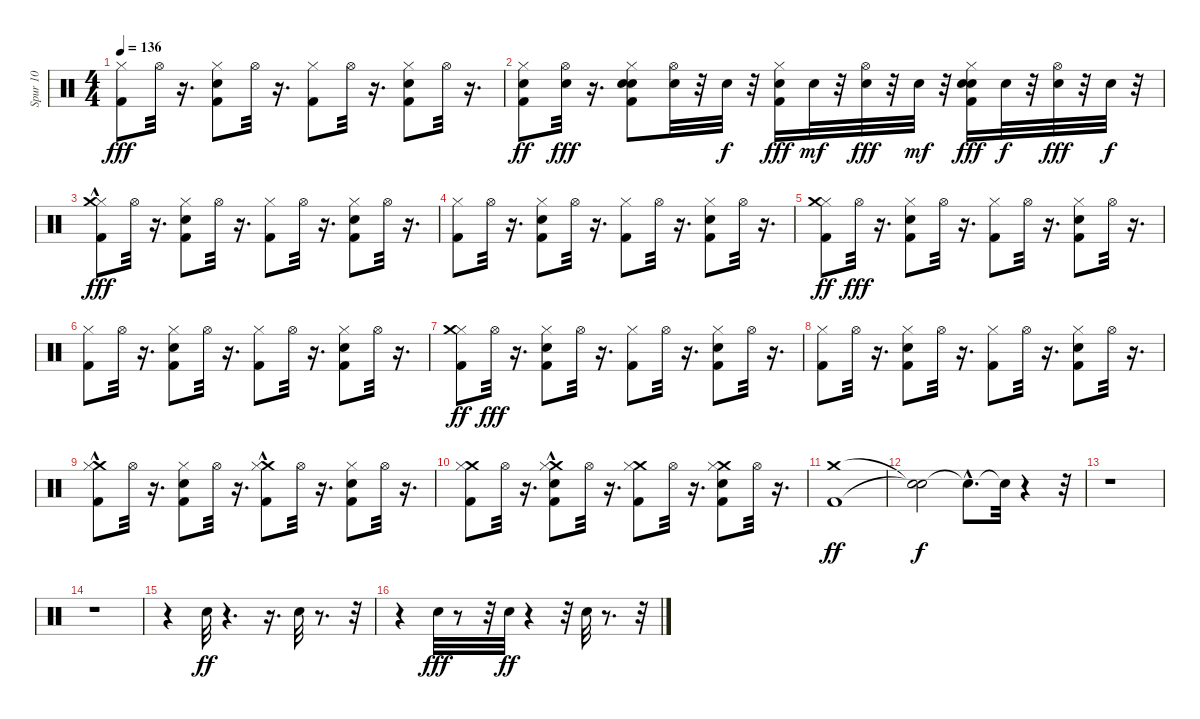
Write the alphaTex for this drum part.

\track ("Spur 10" "Spur 10") {instrument percussion}
\staff {score}
\articulation defaults
\ts (4 4)
\tempo 136
\clef neutral
\ks c
("Hi-Hat (closed)" "Kick (hit) 2").8{dy fff} "Hi-Hat (open)".32 r.16{d} ("Snare (hit) 2" "Hi-Hat (closed)" "Kick (hit) 2").8 "Hi-Hat (open)".32 r.16{d} ("Hi-Hat (closed)" "Kick (hit) 2").8 "Hi-Hat (open)".32 r.16{d} ("Hi-Hat (closed)" "Kick (hit) 2" "Snare (hit) 2").8 "Hi-Hat (open)".32 r.16{d} |
("Hi-Hat (closed)" "Kick (hit) 2" "Snare (hit) 2").8{dy ff} ("Snare (hit) 2" "Hi-Hat (open)").32{dy fff} r.16{d} ("Kick (hit) 2" "Hi-Hat (closed)" "Snare (hit) 2" "Snare (hit) 2").8 ("Hi-Hat (open)" "Snare (hit) 2").32 r.32 "Snare (hit) 2".32{dy f} r.32 ("Snare (hit) 2" "Kick (hit) 2" "Hi-Hat (closed)").16{dy fff} "Snare (hit) 2".32{dy mf} r.32 ("Snare (hit) 2" "Hi-Hat (open)").32{dy fff} r.32 "Snare (hit) 2".32{dy mf} r.32 ("Snare (hit) 2" "Kick (hit) 2" "Snare (hit) 2" "Hi-Hat (closed)").16{dy fff} "Snare (hit) 2".32{dy f} r.32 ("Snare (hit) 2" "Hi-Hat (open)").32{dy fff} r.32 "Snare (hit) 2".32{dy f} r.32 |
("Hi-Hat (closed)" "Crash medium (hit)"{hac} "Kick (hit) 2").8{dy fff} "Hi-Hat (open)".32 r.16{d} ("Snare (hit) 2" "Kick (hit) 2" "Hi-Hat (closed)").8 "Hi-Hat (open)".32 r.16{d} ("Hi-Hat (closed)" "Kick (hit) 2").8 "Hi-Hat (open)".32 r.16{d} ("Kick (hit) 2" "Snare (hit) 2" "Hi-Hat (closed)").8 "Hi-Hat (open)".32 r.16{d} |
("Hi-Hat (closed)" "Kick (hit) 2").8 "Hi-Hat (open)".32 r.16{d} ("Snare (hit) 2" "Kick (hit) 2" "Hi-Hat (closed)").8 "Hi-Hat (open)".32 r.16{d} ("Hi-Hat (closed)" "Kick (hit) 2").8 "Hi-Hat (open)".32 r.16{d} ("Snare (hit) 2" "Hi-Hat (closed)" "Kick (hit) 2").8 "Hi-Hat (open)".32 r.16{d} |
("Hi-Hat (closed)" "Kick (hit) 2" "Crash medium (hit)").8{dy ff} "Hi-Hat (open)".32{dy fff} r.16{d} ("Kick (hit) 2" "Snare (hit) 2" "Hi-Hat (closed)").8 "Hi-Hat (open)".32 r.16{d} ("Hi-Hat (closed)" "Kick (hit) 2").8 "Hi-Hat (open)".32 r.16{d} ("Kick (hit) 2" "Hi-Hat (closed)" "Snare (hit) 2").8 "Hi-Hat (open)".32 r.16{d} |
("Hi-Hat (closed)" "Kick (hit) 2").8 "Hi-Hat (open)".32 r.16{d} ("Kick (hit) 2" "Hi-Hat (closed)" "Snare (hit) 2").8 "Hi-Hat (open)".32 r.16{d} ("Kick (hit) 2" "Hi-Hat (closed)").8 "Hi-Hat (open)".32 r.16{d} ("Hi-Hat (closed)" "Kick (hit) 2" "Snare (hit) 2").8 "Hi-Hat (open)".32 r.16{d} |
("Hi-Hat (closed)" "Kick (hit) 2" "Crash medium (hit)").8{dy ff} "Hi-Hat (open)".32{dy fff} r.16{d} ("Hi-Hat (closed)" "Snare (hit) 2" "Kick (hit) 2").8 "Hi-Hat (open)".32 r.16{d} ("Hi-Hat (closed)" "Kick (hit) 2").8 "Hi-Hat (open)".32 r.16{d} ("Hi-Hat (closed)" "Kick (hit) 2" "Snare (hit) 2").8 "Hi-Hat (open)".32 r.16{d} |
("Kick (hit) 2" "Hi-Hat (closed)").8 "Hi-Hat (open)".32 r.16{d} ("Kick (hit) 2" "Snare (hit) 2" "Hi-Hat (closed)").8 "Hi-Hat (open)".32 r.16{d} ("Kick (hit) 2" "Hi-Hat (closed)").8 "Hi-Hat (open)".32 r.16{d} ("Hi-Hat (closed)" "Kick (hit) 2" "Snare (hit) 2").8 "Hi-Hat (open)".32 r.16{d} |
("Crash medium (hit)"{hac} "Hi-Hat (closed)" "Kick (hit) 2").8 "Hi-Hat (open)".32 r.16{d} ("Hi-Hat (closed)" "Kick (hit) 2" "Snare (hit) 2").8 "Hi-Hat (open)".32 r.16{d} ("Kick (hit) 2" "Crash medium (hit)"{hac} "Hi-Hat (closed)").8 "Hi-Hat (open)".32 r.16{d} ("Hi-Hat (closed)" "Snare (hit) 2" "Kick (hit) 2").8 "Hi-Hat (open)".32 r.16{d} |
("Crash medium (hit)" "Hi-Hat (closed)" "Kick (hit) 2").8 "Hi-Hat (open)".32 r.16{d} ("Crash medium (hit)"{hac} "Hi-Hat (closed)" "Snare (hit) 2" "Kick (hit) 2").8 "Hi-Hat (open)".32 r.16{d} ("Crash medium (hit)" "Kick (hit) 2" "Hi-Hat (closed)").8 "Hi-Hat (open)".32 r.16{d} ("Crash medium (hit)" "Snare (hit) 2" "Hi-Hat (closed)" "Kick (hit) 2").8 "Hi-Hat (open)".32 r.16{d} |
("Kick (hit) 2" "Crash medium (hit)").1{dy ff} |
("Snare (hit)"{t} "Snare (hit)"{t}).2{dy f} "Snare (hit)"{hac t}.8{d} "Snare (hit)"{t}.32 r.4 r.32 |
r.1 |
r.1 |
r.4 "Snare (hit) 2".32{dy ff} r.4{d} r.16{d} "Snare (hit) 2".32 r.8{d} r.32 |
r.4 "Snare (hit) 2".32{dy fff} r.8 r.32 "Snare (hit) 2".32{dy ff} r.4 r.32 "Snare (hit) 2".32 r.8{d} r.32
